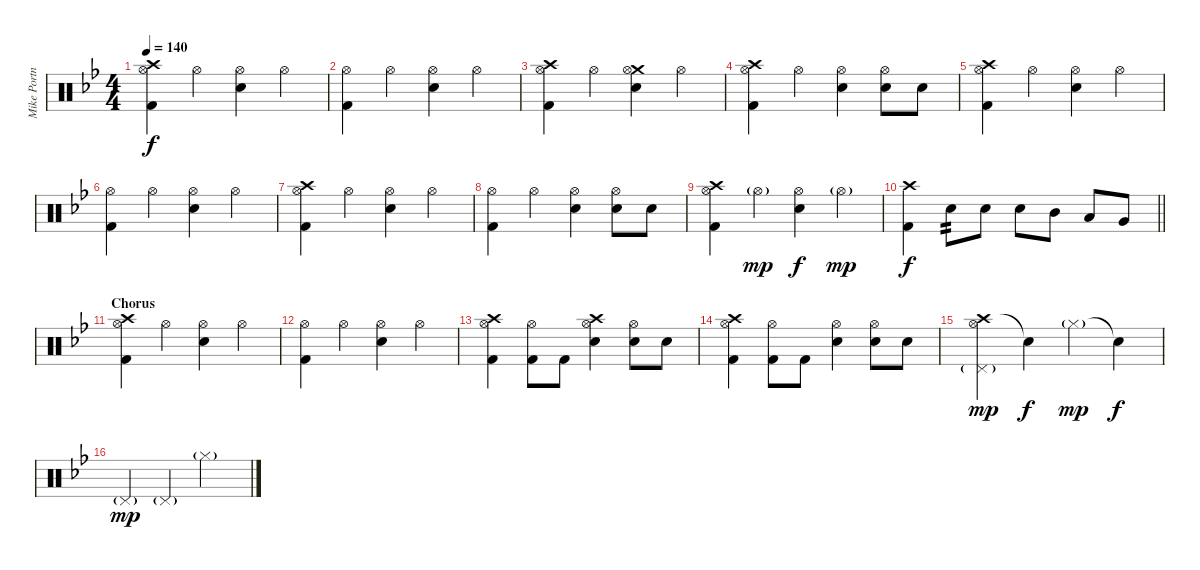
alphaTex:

\track ("Mike Portnoy" "Mike Portn") {instrument percussion}
\staff {score}
\articulation defaults
\ts (4 4)
\tempo 140
\clef neutral
\ks bb
("Crash high (hit)" "Hi-Hat (open)" "Kick (hit) 2").4{dy f} "Hi-Hat (open)".4 ("Hi-Hat (open)" "Electric Snare (hit)").4 "Hi-Hat (open)".4 |
("Hi-Hat (open)" "Kick (hit) 2").4 "Hi-Hat (open)".4 ("Hi-Hat (open)" "Electric Snare (hit)").4 "Hi-Hat (open)".4 |
("Crash high (hit)" "Hi-Hat (open)" "Kick (hit) 2").4 "Hi-Hat (open)".4 ("Crash medium (hit)" "Hi-Hat (open)" "Electric Snare (hit)").4 "Hi-Hat (open)".4 |
("Crash high (hit)" "Hi-Hat (open)" "Kick (hit) 2").4 "Hi-Hat (open)".4 ("Hi-Hat (open)" "Electric Snare (hit)").4 ("Hi-Hat (open)" "Electric Snare (hit)").8 "Electric Snare (hit)".8 |
("Crash high (hit)" "Hi-Hat (open)" "Kick (hit) 2").4 "Hi-Hat (open)".4 ("Hi-Hat (open)" "Electric Snare (hit)").4 "Hi-Hat (open)".4 |
("Hi-Hat (open)" "Kick (hit) 2").4 "Hi-Hat (open)".4 ("Hi-Hat (open)" "Electric Snare (hit)").4 "Hi-Hat (open)".4 |
("Crash high (hit)" "Hi-Hat (open)" "Kick (hit) 2").4 "Hi-Hat (open)".4 ("Hi-Hat (open)" "Electric Snare (hit)").4 "Hi-Hat (open)".4 |
("Hi-Hat (open)" "Kick (hit) 2").4 "Hi-Hat (open)".4 ("Hi-Hat (open)" "Electric Snare (hit)").4 ("Hi-Hat (open)" "Electric Snare (hit)").8 "Electric Snare (hit)".8 |
("Crash high (hit)" "Hi-Hat (open)" "Kick (hit) 2").4 "Hi-Hat (open)"{g}.4{dy mp} ("Hi-Hat (open)" "Electric Snare (hit)").4{dy f} "Hi-Hat (open)"{g}.4{dy mp} |
\barLineRight lightlight
("Crash high (hit)" "Kick (hit) 2").4{dy f} "Electric Snare (hit)".8{tp 2} "Electric Snare (hit)".8 "Electric Snare (hit)".8 "Mid Tom (hit)".8 "Low Tom (hit)".8 "Very Low Tom (hit)".8 |
\section ("" "Chorus")
("Crash high (hit)" "Hi-Hat (open)" "Kick (hit) 2").4 "Hi-Hat (open)".4 ("Hi-Hat (open)" "Electric Snare (hit)").4 "Hi-Hat (open)".4 |
("Hi-Hat (open)" "Kick (hit) 2").4 "Hi-Hat (open)".4 ("Hi-Hat (open)" "Electric Snare (hit)").4 "Hi-Hat (open)".4 |
("Crash high (hit)" "Hi-Hat (open)" "Kick (hit) 2").4 ("Hi-Hat (open)" "Kick (hit) 2").8 "Kick (hit) 2".8 ("Crash high (hit)" "Hi-Hat (open)" "Electric Snare (hit)").4 ("Electric Snare (hit)" "Hi-Hat (open)").8 "Electric Snare (hit)".8 |
("Crash high (hit)" "Hi-Hat (open)" "Kick (hit) 2").4 ("Hi-Hat (open)" "Kick (hit) 2").8 "Kick (hit) 2".8 ("Hi-Hat (open)" "Electric Snare (hit)").4 ("Electric Snare (hit)" "Hi-Hat (open)").8 "Electric Snare (hit)".8 |
("Crash high (hit)" "Hi-Hat (open)" "Pedal Hi-Hat (hit)"{g}).4{dy mp} "Snare (hit)"{t}.4{dy f} "Hi-Hat (closed)"{g}.4{dy mp} "Snare (hit)"{t}.4{dy f} |
"Pedal Hi-Hat (hit)"{g}.4{dy mp} "Pedal Hi-Hat (hit)"{g}.4 "Hi-Hat (closed)"{g}.2
